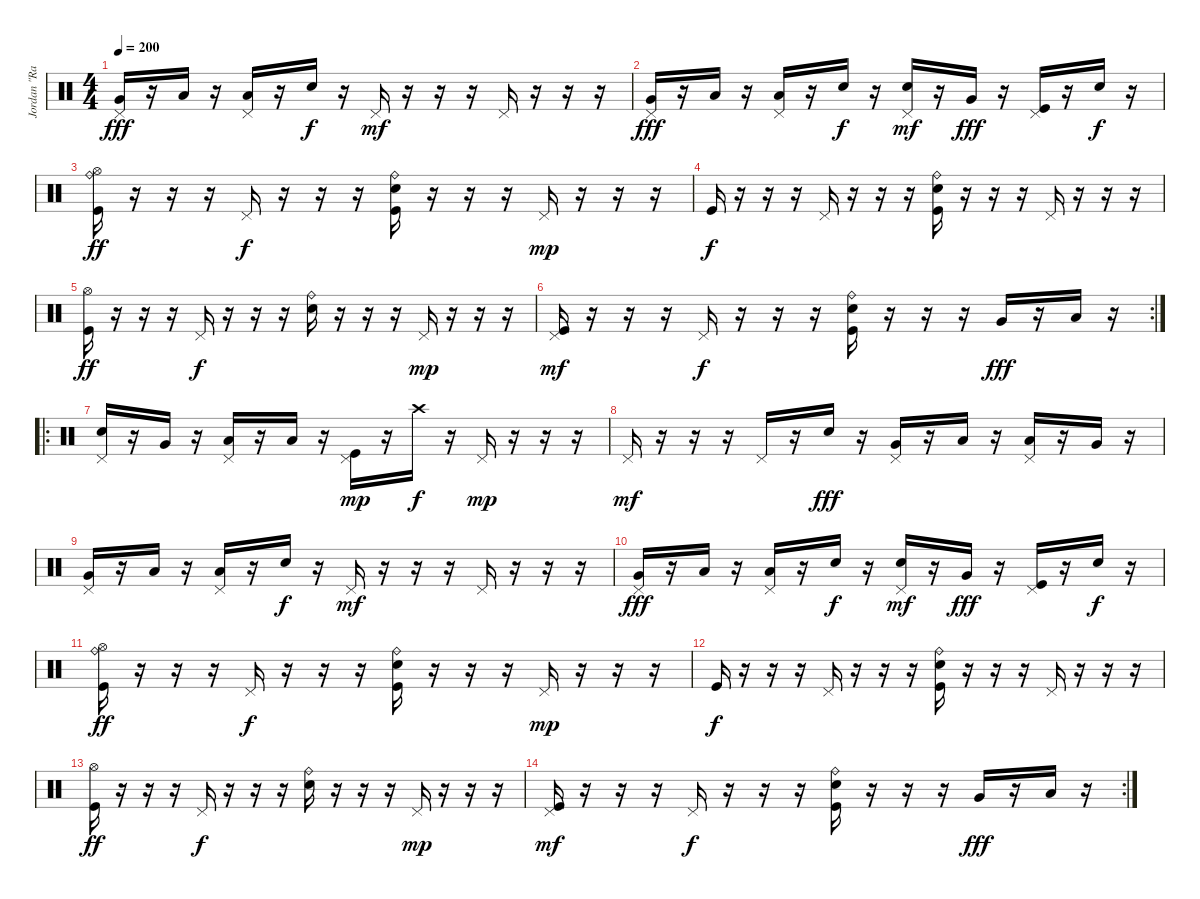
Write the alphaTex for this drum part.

\track ("Jordan \"Ratbeard\" Hastings" "Jordan \"Ra") {instrument percussion}
\staff {score}
\articulation defaults
\ts (4 4)
\tempo 200
\clef neutral
\ks c
("Pedal Hi-Hat (hit)" "Very Low Tom (hit)").16{dy fff} r.16 "Low Tom (hit)".16 r.16 ("Pedal Hi-Hat (hit)" "Low Floor Tom (hit)").16 r.16 "Electric Snare (hit)".16{dy f} r.16 "Pedal Hi-Hat (hit)".16{dy mf} r.16 r.16 r.16 "Pedal Hi-Hat (hit)".16 r.16 r.16 r.16 |
("Pedal Hi-Hat (hit)" "Very Low Tom (hit)").16{dy fff} r.16 "Low Tom (hit)".16 r.16 ("Pedal Hi-Hat (hit)" "Low Floor Tom (hit)").16 r.16 "Electric Snare (hit)".16{dy f} r.16 ("Pedal Hi-Hat (hit)" "Electric Snare (hit)").16{dy mf} r.16 "Very Low Tom (hit)".16{dy fff} r.16 ("Pedal Hi-Hat (hit)" "Kick (hit)").16 r.16 "Electric Snare (hit)".16{dy f} r.16 |
("Hi-Hat (open)" "Ride (bell)" "Kick (hit)").16{dy ff} r.16 r.16 r.16 "Pedal Hi-Hat (hit)".16{dy f} r.16 r.16 r.16 ("Ride (bell)" "Electric Snare (hit)" "Kick (hit)").16 r.16 r.16 r.16 "Pedal Hi-Hat (hit)".16{dy mp} r.16 r.16 r.16 |
"Kick (hit)".16{dy f} r.16 r.16 r.16 "Pedal Hi-Hat (hit)".16 r.16 r.16 r.16 ("Ride (bell)" "Electric Snare (hit)" "Kick (hit)").16 r.16 r.16 r.16 "Pedal Hi-Hat (hit)".16 r.16 r.16 r.16 |
("Hi-Hat (open)" "Kick (hit)").16{dy ff} r.16 r.16 r.16 "Pedal Hi-Hat (hit)".16{dy f} r.16 r.16 r.16 ("Ride (bell)" "Electric Snare (hit)").16 r.16 r.16 r.16 "Pedal Hi-Hat (hit)".16{dy mp} r.16 r.16 r.16 |
\rc 2
("Pedal Hi-Hat (hit)" "Kick (hit)").16{dy mf} r.16 r.16 r.16 "Pedal Hi-Hat (hit)".16{dy f} r.16 r.16 r.16 ("Ride (bell)" "Electric Snare (hit)" "Kick (hit)").16 r.16 r.16 r.16 "Very Low Tom (hit)".16{dy fff} r.16 "Low Tom (hit)".16 r.16 |
\ro
("Pedal Hi-Hat (hit)" "Electric Snare (hit)").16 r.16 "Very Low Tom (hit)".16 r.16 ("Pedal Hi-Hat (hit)" "Low Tom (hit)").16 r.16 "Low Floor Tom (hit)".16 r.16 ("Pedal Hi-Hat (hit)" "Kick (hit)").16{dy mp} r.16 "Crash high (hit)".16{dy f} r.16 "Pedal Hi-Hat (hit)".16{dy mp} r.16 r.16 r.16 |
"Pedal Hi-Hat (hit)".16{dy mf} r.16 r.16 r.16 "Pedal Hi-Hat (hit)".16 r.16 "Electric Snare (hit)".16{dy fff} r.16 ("Pedal Hi-Hat (hit)" "Very Low Tom (hit)").16 r.16 "Low Tom (hit)".16 r.16 ("Pedal Hi-Hat (hit)" "Low Floor Tom (hit)").16 r.16 "Very Low Tom (hit)".16 r.16 |
("Pedal Hi-Hat (hit)" "Very Low Tom (hit)").16 r.16 "Low Tom (hit)".16 r.16 ("Pedal Hi-Hat (hit)" "Low Floor Tom (hit)").16 r.16 "Electric Snare (hit)".16{dy f} r.16 "Pedal Hi-Hat (hit)".16{dy mf} r.16 r.16 r.16 "Pedal Hi-Hat (hit)".16 r.16 r.16 r.16 |
("Pedal Hi-Hat (hit)" "Very Low Tom (hit)").16{dy fff} r.16 "Low Tom (hit)".16 r.16 ("Pedal Hi-Hat (hit)" "Low Floor Tom (hit)").16 r.16 "Electric Snare (hit)".16{dy f} r.16 ("Pedal Hi-Hat (hit)" "Electric Snare (hit)").16{dy mf} r.16 "Very Low Tom (hit)".16{dy fff} r.16 ("Pedal Hi-Hat (hit)" "Kick (hit)").16 r.16 "Electric Snare (hit)".16{dy f} r.16 |
("Hi-Hat (open)" "Ride (bell)" "Kick (hit)").16{dy ff} r.16 r.16 r.16 "Pedal Hi-Hat (hit)".16{dy f} r.16 r.16 r.16 ("Ride (bell)" "Electric Snare (hit)" "Kick (hit)").16 r.16 r.16 r.16 "Pedal Hi-Hat (hit)".16{dy mp} r.16 r.16 r.16 |
"Kick (hit)".16{dy f} r.16 r.16 r.16 "Pedal Hi-Hat (hit)".16 r.16 r.16 r.16 ("Ride (bell)" "Electric Snare (hit)" "Kick (hit)").16 r.16 r.16 r.16 "Pedal Hi-Hat (hit)".16 r.16 r.16 r.16 |
("Hi-Hat (open)" "Kick (hit)").16{dy ff} r.16 r.16 r.16 "Pedal Hi-Hat (hit)".16{dy f} r.16 r.16 r.16 ("Ride (bell)" "Electric Snare (hit)").16 r.16 r.16 r.16 "Pedal Hi-Hat (hit)".16{dy mp} r.16 r.16 r.16 |
\rc 2
("Pedal Hi-Hat (hit)" "Kick (hit)").16{dy mf} r.16 r.16 r.16 "Pedal Hi-Hat (hit)".16{dy f} r.16 r.16 r.16 ("Ride (bell)" "Electric Snare (hit)" "Kick (hit)").16 r.16 r.16 r.16 "Very Low Tom (hit)".16{dy fff} r.16 "Low Tom (hit)".16 r.16
